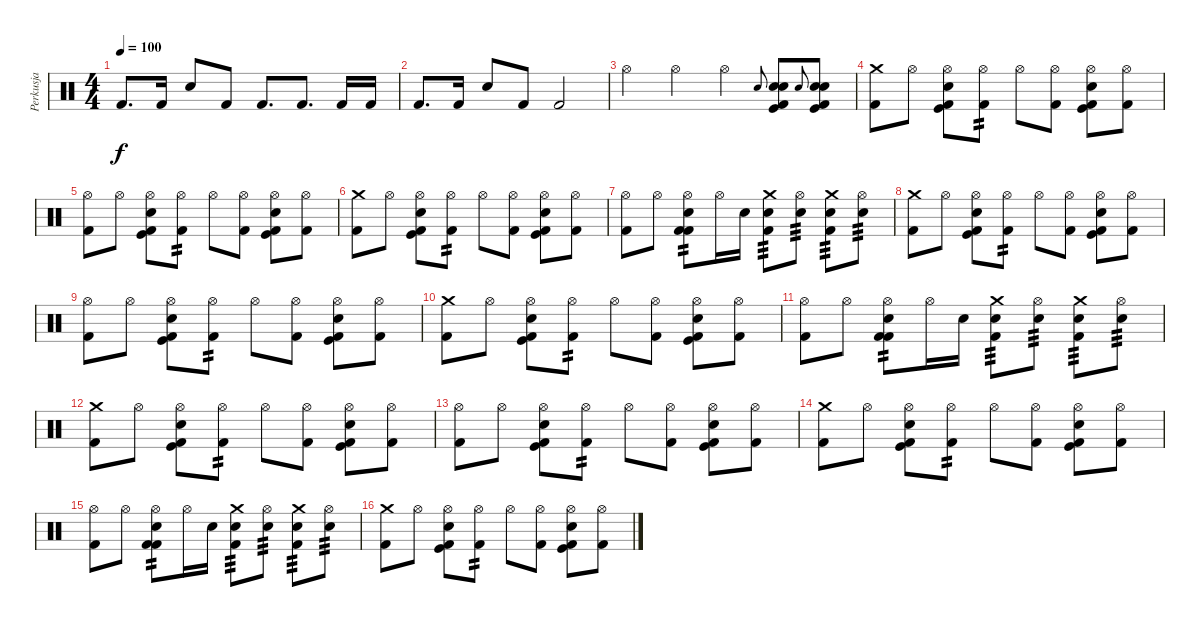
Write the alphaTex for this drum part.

\track ("Perkusja" "Perkusja") {instrument percussion}
\staff {score}
\articulation defaults
\ts (4 4)
\tempo 100
\clef neutral
\ks c "Kick (hit) 2".8{d dy f} "Kick (hit) 2".16 "Electric Snare (hit)".8 "Kick (hit) 2".8 "Kick (hit) 2".8{d} "Kick (hit) 2".8{d} "Kick (hit) 2".16 "Kick (hit) 2".16
|
"Kick (hit) 2".8{d} "Kick (hit) 2".16 "Electric Snare (hit)".8 "Kick (hit) 2".8 "Kick (hit) 2".2 |
"Hi-Hat (open)".4 "Hi-Hat (open)".4 "Hi-Hat (open)".4 "Electric Snare (hit)".8{gr onbeat} ("Snare (hit) 2" "Electric Snare (hit)" "Kick (hit)" "Kick (hit) 2").8 "Electric Snare (hit)".8{gr onbeat} ("Snare (hit) 2" "Electric Snare (hit)" "Kick (hit)" "Kick (hit) 2").8 |
("Crash medium (hit)" "Kick (hit) 2").8 "Hi-Hat (open)".8 ("Hi-Hat (open)" "Electric Snare (hit)" "Kick (hit) 2" "Kick (hit)").8 ("Hi-Hat (open)" "Kick (hit) 2").8{tp 2} "Hi-Hat (open)".8 ("Hi-Hat (open)" "Kick (hit) 2").8 ("Hi-Hat (open)" "Electric Snare (hit)" "Kick (hit) 2" "Kick (hit)").8 ("Hi-Hat (open)" "Kick (hit) 2").8 |
("Hi-Hat (open)" "Kick (hit) 2").8 "Hi-Hat (open)".8 ("Hi-Hat (open)" "Electric Snare (hit)" "Kick (hit) 2" "Kick (hit)").8 ("Hi-Hat (open)" "Kick (hit) 2").8{tp 2} "Hi-Hat (open)".8 ("Hi-Hat (open)" "Kick (hit) 2").8 ("Hi-Hat (open)" "Electric Snare (hit)" "Kick (hit) 2" "Kick (hit)").8 ("Hi-Hat (open)" "Kick (hit) 2").8 |
("Crash medium (hit)" "Kick (hit) 2").8 "Hi-Hat (open)".8 ("Hi-Hat (open)" "Electric Snare (hit)" "Kick (hit) 2" "Kick (hit)").8 ("Hi-Hat (open)" "Kick (hit) 2").8{tp 2} "Hi-Hat (open)".8 ("Hi-Hat (open)" "Kick (hit) 2").8 ("Hi-Hat (open)" "Electric Snare (hit)" "Kick (hit) 2" "Kick (hit)").8 ("Hi-Hat (open)" "Kick (hit) 2").8 |
("Hi-Hat (open)" "Kick (hit) 2").8 "Hi-Hat (open)".8 ("Hi-Hat (open)" "Electric Snare (hit)" "Kick (hit) 2" "Kick (hit) 2").8{tp 2} "Hi-Hat (open)".16 "Electric Snare (hit)".16 ("Crash medium (hit)" "Snare (hit) 2" "Kick (hit) 2").8{tp 3} ("Hi-Hat (open)" "Snare (hit) 2").8{tp 3} ("Crash medium (hit)" "Electric Snare (hit)" "Kick (hit) 2").8{tp 3} ("Hi-Hat (open)" "Electric Snare (hit)").8{tp 3} |
("Crash medium (hit)" "Kick (hit) 2").8 "Hi-Hat (open)".8 ("Hi-Hat (open)" "Electric Snare (hit)" "Kick (hit) 2" "Kick (hit)").8 ("Hi-Hat (open)" "Kick (hit) 2").8{tp 2} "Hi-Hat (open)".8 ("Hi-Hat (open)" "Kick (hit) 2").8 ("Hi-Hat (open)" "Electric Snare (hit)" "Kick (hit) 2" "Kick (hit)").8 ("Hi-Hat (open)" "Kick (hit) 2").8 |
("Hi-Hat (open)" "Kick (hit) 2").8 "Hi-Hat (open)".8 ("Hi-Hat (open)" "Electric Snare (hit)" "Kick (hit) 2" "Kick (hit)").8 ("Hi-Hat (open)" "Kick (hit) 2").8{tp 2} "Hi-Hat (open)".8 ("Hi-Hat (open)" "Kick (hit) 2").8 ("Hi-Hat (open)" "Electric Snare (hit)" "Kick (hit) 2" "Kick (hit)").8 ("Hi-Hat (open)" "Kick (hit) 2").8 |
("Crash medium (hit)" "Kick (hit) 2").8 "Hi-Hat (open)".8 ("Hi-Hat (open)" "Electric Snare (hit)" "Kick (hit) 2" "Kick (hit)").8 ("Hi-Hat (open)" "Kick (hit) 2").8{tp 2} "Hi-Hat (open)".8 ("Hi-Hat (open)" "Kick (hit) 2").8 ("Hi-Hat (open)" "Electric Snare (hit)" "Kick (hit) 2" "Kick (hit)").8 ("Hi-Hat (open)" "Kick (hit) 2").8 |
("Hi-Hat (open)" "Kick (hit) 2").8 "Hi-Hat (open)".8 ("Hi-Hat (open)" "Electric Snare (hit)" "Kick (hit) 2" "Kick (hit) 2").8{tp 2} "Hi-Hat (open)".16 "Electric Snare (hit)".16 ("Crash medium (hit)" "Snare (hit) 2" "Kick (hit) 2").8{tp 3} ("Hi-Hat (open)" "Snare (hit) 2").8{tp 3} ("Crash medium (hit)" "Electric Snare (hit)" "Kick (hit) 2").8{tp 3} ("Hi-Hat (open)" "Electric Snare (hit)").8{tp 3} |
("Crash medium (hit)" "Kick (hit) 2").8 "Hi-Hat (open)".8 ("Hi-Hat (open)" "Electric Snare (hit)" "Kick (hit) 2" "Kick (hit)").8 ("Hi-Hat (open)" "Kick (hit) 2").8{tp 2} "Hi-Hat (open)".8 ("Hi-Hat (open)" "Kick (hit) 2").8 ("Hi-Hat (open)" "Electric Snare (hit)" "Kick (hit) 2" "Kick (hit)").8 ("Hi-Hat (open)" "Kick (hit) 2").8 |
("Hi-Hat (open)" "Kick (hit) 2").8 "Hi-Hat (open)".8 ("Hi-Hat (open)" "Electric Snare (hit)" "Kick (hit) 2" "Kick (hit)").8 ("Hi-Hat (open)" "Kick (hit) 2").8{tp 2} "Hi-Hat (open)".8 ("Hi-Hat (open)" "Kick (hit) 2").8 ("Hi-Hat (open)" "Electric Snare (hit)" "Kick (hit) 2" "Kick (hit)").8 ("Hi-Hat (open)" "Kick (hit) 2").8 |
("Crash medium (hit)" "Kick (hit) 2").8 "Hi-Hat (open)".8 ("Hi-Hat (open)" "Electric Snare (hit)" "Kick (hit) 2" "Kick (hit)").8 ("Hi-Hat (open)" "Kick (hit) 2").8{tp 2} "Hi-Hat (open)".8 ("Hi-Hat (open)" "Kick (hit) 2").8 ("Hi-Hat (open)" "Electric Snare (hit)" "Kick (hit) 2" "Kick (hit)").8 ("Hi-Hat (open)" "Kick (hit) 2").8 |
("Hi-Hat (open)" "Kick (hit) 2").8 "Hi-Hat (open)".8 ("Hi-Hat (open)" "Electric Snare (hit)" "Kick (hit) 2" "Kick (hit) 2").8{tp 2} "Hi-Hat (open)".16 "Electric Snare (hit)".16 ("Crash medium (hit)" "Snare (hit) 2" "Kick (hit) 2").8{tp 3} ("Hi-Hat (open)" "Snare (hit) 2").8{tp 3} ("Crash medium (hit)" "Electric Snare (hit)" "Kick (hit) 2").8{tp 3} ("Hi-Hat (open)" "Electric Snare (hit)").8{tp 3} |
("Crash medium (hit)" "Kick (hit) 2").8 "Hi-Hat (open)".8 ("Hi-Hat (open)" "Electric Snare (hit)" "Kick (hit) 2" "Kick (hit)").8 ("Hi-Hat (open)" "Kick (hit) 2").8{tp 2} "Hi-Hat (open)".8 ("Hi-Hat (open)" "Kick (hit) 2").8 ("Hi-Hat (open)" "Electric Snare (hit)" "Kick (hit) 2" "Kick (hit)").8 ("Hi-Hat (open)" "Kick (hit) 2").8
